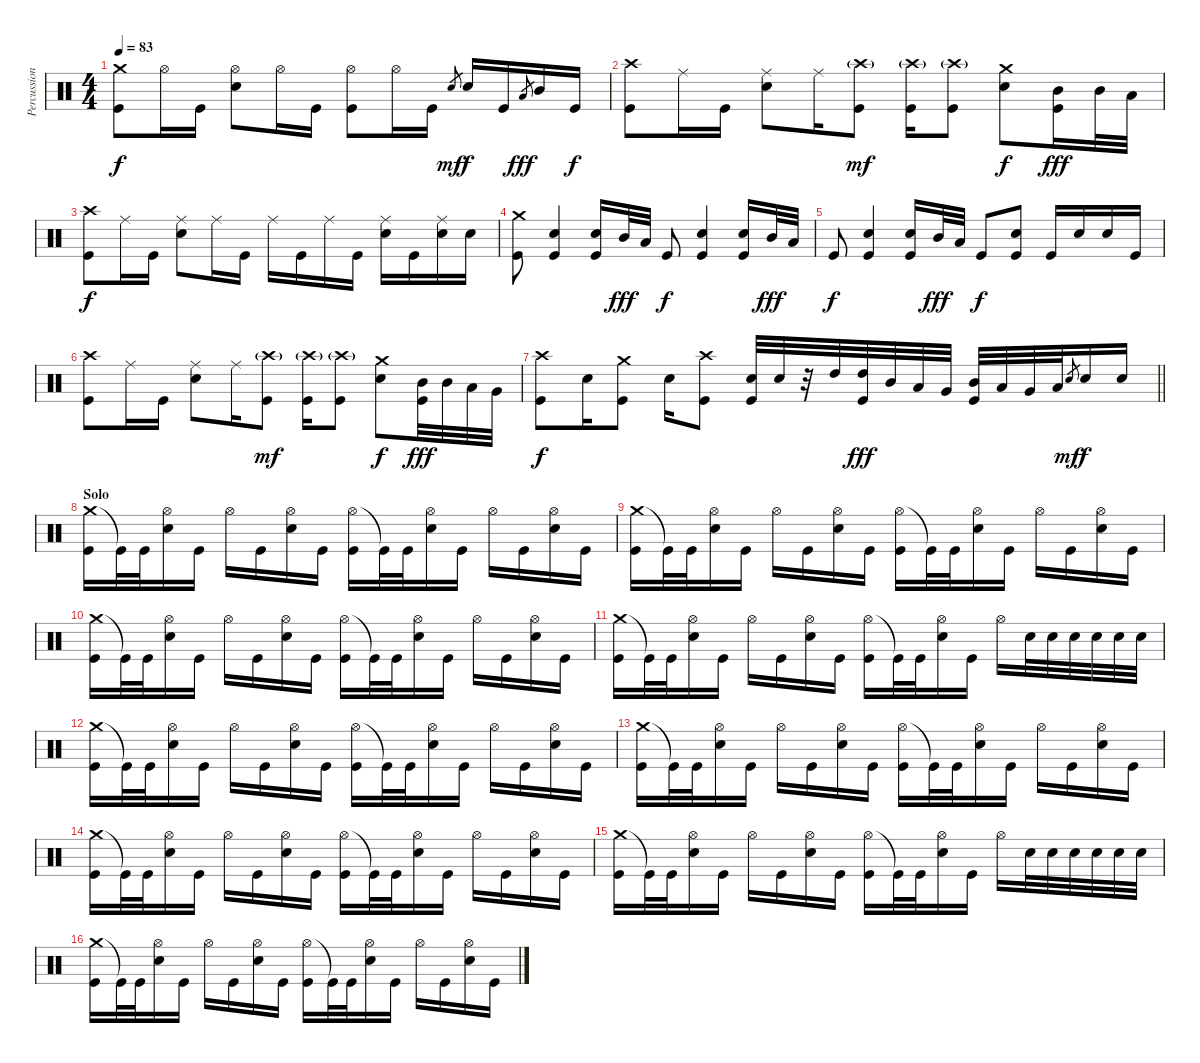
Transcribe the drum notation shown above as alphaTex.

\track ("Percussions" "Percussion") {instrument percussion}
\staff {score}
\articulation defaults
\ts (4 4)
\tempo 83
\clef neutral
\ks c
("Crash medium (hit)" "Kick (hit)").8{dy f volume 16} "Hi-Hat (open)".16 "Kick (hit)".16 ("Hi-Hat (open)" "Electric Snare (hit)").8 "Hi-Hat (open)".16 "Kick (hit)".16 ("Hi-Hat (open)" "Kick (hit)").8 "Hi-Hat (open)".16 "Kick (hit)".16 "Electric Snare (hit)".8{gr dy mf} "Electric Snare (hit)".16{dy f} "Kick (hit)".16{volume 12} "Low Tom (hit)".8{gr dy fff} "Mid Tom (hit)".16 "Kick (hit)".16{dy f volume 16} |
("Crash high (hit)" "Kick (hit)").8 "Ride (middle)".16 "Kick (hit)".16 ("Ride (middle)" "Electric Snare (hit)").8 "Ride (middle)".16 ("Crash high (hit)"{g} "Kick (hit)").8{dy mf} ("Crash high (hit)"{g} "Kick (hit)").16 ("Crash high (hit)"{g} "Kick (hit)").8 ("Crash medium (hit)" "Electric Snare (hit)").8{dy f} ("Mid Tom (hit)" "Kick (hit)").16{dy fff volume 10} "Mid Tom (hit)".32 "Low Tom (hit)".32 |
("Crash high (hit)" "Kick (hit)").8{dy f volume 16} "Ride (middle)".16 "Kick (hit)".16 ("Ride (middle)" "Electric Snare (hit)").8 "Ride (middle)".16 "Kick (hit)".16 "Ride (middle)".16 "Kick (hit)".16 "Ride (middle)".16 "Kick (hit)".16 ("Ride (middle)" "Electric Snare (hit)").16 "Kick (hit)".16 ("Ride (middle)" "Electric Snare (hit)").16 "Electric Snare (hit)".16 |
("Crash medium (hit)" "Kick (hit)").8 ("Electric Snare (hit)" "Kick (hit)").4 ("Electric Snare (hit)" "Kick (hit)").16 "Mid Tom (hit)".32{dy fff volume 11} "Low Tom (hit)".32 "Kick (hit)".8{dy f volume 16} ("Electric Snare (hit)" "Kick (hit)").4 ("Electric Snare (hit)" "Kick (hit)").16 "Mid Tom (hit)".32{dy fff volume 11} "Low Tom (hit)".32 |
"Kick (hit)".8{dy f volume 16} ("Electric Snare (hit)" "Kick (hit)").4 ("Electric Snare (hit)" "Kick (hit)").16 "Mid Tom (hit)".32{dy fff volume 11} "Low Tom (hit)".32 "Kick (hit)".8{dy f volume 16} ("Electric Snare (hit)" "Kick (hit)").8 "Kick (hit)".16 "Electric Snare (hit)".16 "Electric Snare (hit)".16 "Kick (hit)".16 |
("Crash high (hit)" "Kick (hit)").8 "Ride (middle)".16 "Kick (hit)".16 ("Ride (middle)" "Electric Snare (hit)").8 "Ride (middle)".16 ("Crash high (hit)"{g} "Kick (hit)").8{dy mf} ("Crash high (hit)"{g} "Kick (hit)").16 ("Crash high (hit)"{g} "Kick (hit)").8 ("Crash medium (hit)" "Electric Snare (hit)").8{dy f} ("Mid Tom (hit)" "Kick (hit)").32{dy fff volume 11} "Mid Tom (hit)".32 "Low Tom (hit)".32 "Very Low Tom (hit)".32 |
\barLineRight lightlight
("Crash high (hit)" "Kick (hit)").8{dy f volume 16} "Electric Snare (hit)".16 ("Crash medium (hit)" "Kick (hit)").8 "Electric Snare (hit)".16 ("Crash high (hit)" "Kick (hit)").8 ("Electric Snare (hit)" "Kick (hit)").32 "Electric Snare (hit)".32 r.32 "High Tom (hit)".32{volume 10} ("High Tom (hit)" "Kick (hit)").32{dy fff} "Mid Tom (hit)".32 "Low Tom (hit)".32 "Very Low Tom (hit)".32 ("Mid Tom (hit)" "Kick (hit)").32 "Low Tom (hit)".32 "Very Low Tom (hit)".32 "Low Floor Tom (hit)".32 "Electric Snare (hit)".8{gr dy mf} "Electric Snare (hit)".16{dy f volume 16} "Electric Snare (hit)".16 |
\section ("" "Solo")
("Crash medium (hit)" "Kick (hit)").16 "Kick (hit)"{t}.32 "Kick (hit)".32 ("Hi-Hat (open)" "Electric Snare (hit)").16 "Kick (hit)".16 "Hi-Hat (open)".16 "Kick (hit)".16 ("Hi-Hat (open)" "Electric Snare (hit)").16 "Kick (hit)".16 ("Hi-Hat (open)" "Kick (hit)").16 "Kick (hit)"{t}.32 "Kick (hit)".32 ("Hi-Hat (open)" "Electric Snare (hit)").16 "Kick (hit)".16 "Hi-Hat (open)".16 "Kick (hit)".16 ("Hi-Hat (open)" "Electric Snare (hit)").16 "Kick (hit)".16 |
("Crash medium (hit)" "Kick (hit)").16 "Kick (hit)"{t}.32 "Kick (hit)".32 ("Hi-Hat (open)" "Electric Snare (hit)").16 "Kick (hit)".16 "Hi-Hat (open)".16 "Kick (hit)".16 ("Hi-Hat (open)" "Electric Snare (hit)").16 "Kick (hit)".16 ("Hi-Hat (open)" "Kick (hit)").16 "Kick (hit)"{t}.32 "Kick (hit)".32 ("Hi-Hat (open)" "Electric Snare (hit)").16 "Kick (hit)".16 "Hi-Hat (open)".16 "Kick (hit)".16 ("Hi-Hat (open)" "Electric Snare (hit)").16 "Kick (hit)".16 |
("Crash medium (hit)" "Kick (hit)").16 "Kick (hit)"{t}.32 "Kick (hit)".32 ("Hi-Hat (open)" "Electric Snare (hit)").16 "Kick (hit)".16 "Hi-Hat (open)".16 "Kick (hit)".16 ("Hi-Hat (open)" "Electric Snare (hit)").16 "Kick (hit)".16 ("Hi-Hat (open)" "Kick (hit)").16 "Kick (hit)"{t}.32 "Kick (hit)".32 ("Hi-Hat (open)" "Electric Snare (hit)").16 "Kick (hit)".16 "Hi-Hat (open)".16 "Kick (hit)".16 ("Hi-Hat (open)" "Electric Snare (hit)").16 "Kick (hit)".16 |
("Crash medium (hit)" "Kick (hit)").16 "Kick (hit)"{t}.32 "Kick (hit)".32 ("Hi-Hat (open)" "Electric Snare (hit)").16 "Kick (hit)".16 "Hi-Hat (open)".16 "Kick (hit)".16 ("Hi-Hat (open)" "Electric Snare (hit)").16 "Kick (hit)".16 ("Hi-Hat (open)" "Kick (hit)").16 "Kick (hit)"{t}.32 "Kick (hit)".32 ("Hi-Hat (open)" "Electric Snare (hit)").16 "Kick (hit)".16 "Hi-Hat (open)".16 "Electric Snare (hit)".32 "Electric Snare (hit)".32 "Electric Snare (hit)".32 "Electric Snare (hit)".32 "Electric Snare (hit)".32 "Electric Snare (hit)".32 |
("Crash medium (hit)" "Kick (hit)").16 "Kick (hit)"{t}.32 "Kick (hit)".32 ("Hi-Hat (open)" "Electric Snare (hit)").16 "Kick (hit)".16 "Hi-Hat (open)".16 "Kick (hit)".16 ("Hi-Hat (open)" "Electric Snare (hit)").16 "Kick (hit)".16 ("Hi-Hat (open)" "Kick (hit)").16 "Kick (hit)"{t}.32 "Kick (hit)".32 ("Hi-Hat (open)" "Electric Snare (hit)").16 "Kick (hit)".16 "Hi-Hat (open)".16 "Kick (hit)".16 ("Hi-Hat (open)" "Electric Snare (hit)").16 "Kick (hit)".16 |
("Crash medium (hit)" "Kick (hit)").16 "Kick (hit)"{t}.32 "Kick (hit)".32 ("Hi-Hat (open)" "Electric Snare (hit)").16 "Kick (hit)".16 "Hi-Hat (open)".16 "Kick (hit)".16 ("Hi-Hat (open)" "Electric Snare (hit)").16 "Kick (hit)".16 ("Hi-Hat (open)" "Kick (hit)").16 "Kick (hit)"{t}.32 "Kick (hit)".32 ("Hi-Hat (open)" "Electric Snare (hit)").16 "Kick (hit)".16 "Hi-Hat (open)".16 "Kick (hit)".16 ("Hi-Hat (open)" "Electric Snare (hit)").16 "Kick (hit)".16 |
("Crash medium (hit)" "Kick (hit)").16 "Kick (hit)"{t}.32 "Kick (hit)".32 ("Hi-Hat (open)" "Electric Snare (hit)").16 "Kick (hit)".16 "Hi-Hat (open)".16 "Kick (hit)".16 ("Hi-Hat (open)" "Electric Snare (hit)").16 "Kick (hit)".16 ("Hi-Hat (open)" "Kick (hit)").16 "Kick (hit)"{t}.32 "Kick (hit)".32 ("Hi-Hat (open)" "Electric Snare (hit)").16 "Kick (hit)".16 "Hi-Hat (open)".16 "Kick (hit)".16 ("Hi-Hat (open)" "Electric Snare (hit)").16 "Kick (hit)".16 |
("Crash medium (hit)" "Kick (hit)").16 "Kick (hit)"{t}.32 "Kick (hit)".32 ("Hi-Hat (open)" "Electric Snare (hit)").16 "Kick (hit)".16 "Hi-Hat (open)".16 "Kick (hit)".16 ("Hi-Hat (open)" "Electric Snare (hit)").16 "Kick (hit)".16 ("Hi-Hat (open)" "Kick (hit)").16 "Kick (hit)"{t}.32 "Kick (hit)".32 ("Hi-Hat (open)" "Electric Snare (hit)").16 "Kick (hit)".16 "Hi-Hat (open)".16 "Electric Snare (hit)".32 "Electric Snare (hit)".32 "Electric Snare (hit)".32 "Electric Snare (hit)".32 "Electric Snare (hit)".32 "Electric Snare (hit)".32 |
("Crash medium (hit)" "Kick (hit)").16 "Kick (hit)"{t}.32 "Kick (hit)".32 ("Hi-Hat (open)" "Electric Snare (hit)").16 "Kick (hit)".16 "Hi-Hat (open)".16 "Kick (hit)".16 ("Hi-Hat (open)" "Electric Snare (hit)").16 "Kick (hit)".16 ("Hi-Hat (open)" "Kick (hit)").16 "Kick (hit)"{t}.32 "Kick (hit)".32 ("Hi-Hat (open)" "Electric Snare (hit)").16 "Kick (hit)".16 "Hi-Hat (open)".16 "Kick (hit)".16 ("Hi-Hat (open)" "Electric Snare (hit)").16 "Kick (hit)".16
